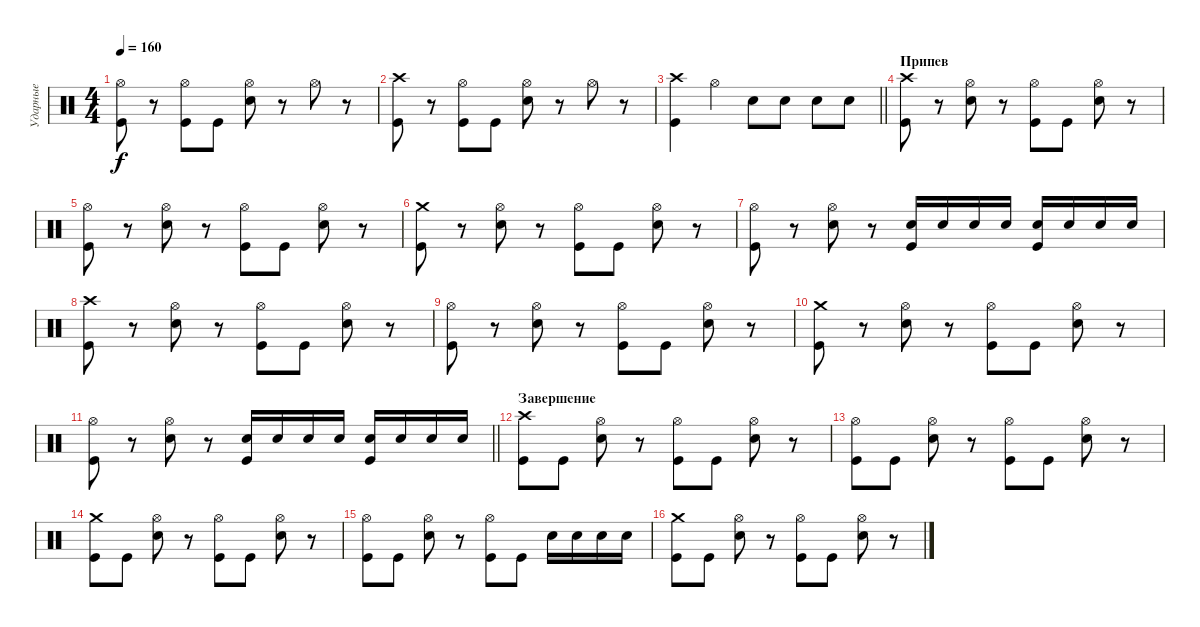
\track ("Ударные" "Ударные") {instrument percussion}
\staff {score}
\articulation defaults
\ts (4 4)
\tempo 160
\clef neutral
\ks c
("Kick (hit)" "Hi-Hat (open)").8{dy f} r.8 ("Kick (hit)" "Hi-Hat (open)").8 "Kick (hit)".8 ("Snare (hit) 2" "Hi-Hat (open)").8 r.8 "Hi-Hat (open)".8 r.8 |
("Kick (hit)" "Crash high (hit)").8 r.8 ("Kick (hit)" "Hi-Hat (open)").8 "Kick (hit)".8 ("Snare (hit) 2" "Hi-Hat (open)").8 r.8 "Hi-Hat (open)".8 r.8 |
\barLineRight lightlight
("Crash high (hit)" "Kick (hit)").4 "Hi-Hat (open)".4 "Snare (hit) 2".8 "Snare (hit) 2".8 "Snare (hit) 2".8 "Snare (hit) 2".8 |
\section ("" "Припев")
("Kick (hit)" "Crash high (hit)").8 r.8 ("Snare (hit) 2" "Hi-Hat (open)").8 r.8 ("Kick (hit)" "Hi-Hat (open)").8 "Kick (hit)".8 ("Snare (hit) 2" "Hi-Hat (open)").8 r.8 |
("Kick (hit)" "Hi-Hat (open)").8 r.8 ("Snare (hit) 2" "Hi-Hat (open)").8 r.8 ("Kick (hit)" "Hi-Hat (open)").8 "Kick (hit)".8 ("Snare (hit) 2" "Hi-Hat (open)").8 r.8 |
("Kick (hit)" "Crash medium (hit)").8 r.8 ("Snare (hit) 2" "Hi-Hat (open)").8 r.8 ("Kick (hit)" "Hi-Hat (open)").8 "Kick (hit)".8 ("Snare (hit) 2" "Hi-Hat (open)").8 r.8 |
("Kick (hit)" "Hi-Hat (open)").8 r.8 ("Snare (hit) 2" "Hi-Hat (open)").8 r.8 ("Snare (hit) 2" "Kick (hit)").16 "Snare (hit) 2".16 "Snare (hit) 2".16 "Snare (hit) 2".16 ("Snare (hit) 2" "Kick (hit)").16 "Snare (hit) 2".16 "Snare (hit) 2".16 "Snare (hit) 2".16 |
("Kick (hit)" "Crash high (hit)").8 r.8 ("Snare (hit) 2" "Hi-Hat (open)").8 r.8 ("Kick (hit)" "Hi-Hat (open)").8 "Kick (hit)".8 ("Snare (hit) 2" "Hi-Hat (open)").8 r.8 |
("Kick (hit)" "Hi-Hat (open)").8 r.8 ("Snare (hit) 2" "Hi-Hat (open)").8 r.8 ("Kick (hit)" "Hi-Hat (open)").8 "Kick (hit)".8 ("Snare (hit) 2" "Hi-Hat (open)").8 r.8 |
("Kick (hit)" "Crash medium (hit)").8 r.8 ("Snare (hit) 2" "Hi-Hat (open)").8 r.8 ("Kick (hit)" "Hi-Hat (open)").8 "Kick (hit)".8 ("Snare (hit) 2" "Hi-Hat (open)").8 r.8 |
\barLineRight lightlight
("Kick (hit)" "Hi-Hat (open)").8 r.8 ("Snare (hit) 2" "Hi-Hat (open)").8 r.8 ("Snare (hit) 2" "Kick (hit)").16 "Snare (hit) 2".16 "Snare (hit) 2".16 "Snare (hit) 2".16 ("Snare (hit) 2" "Kick (hit)").16 "Snare (hit) 2".16 "Snare (hit) 2".16 "Snare (hit) 2".16 |
\section ("" "Завершение")
("Kick (hit)" "Crash high (hit)").8 "Kick (hit)".8 ("Snare (hit) 2" "Hi-Hat (open)").8 r.8 ("Kick (hit)" "Hi-Hat (open)").8 "Kick (hit)".8 ("Snare (hit) 2" "Hi-Hat (open)").8 r.8 |
("Kick (hit)" "Hi-Hat (open)").8 "Kick (hit)".8 ("Snare (hit) 2" "Hi-Hat (open)").8 r.8 ("Kick (hit)" "Hi-Hat (open)").8 "Kick (hit)".8 ("Snare (hit) 2" "Hi-Hat (open)").8 r.8 |
("Kick (hit)" "Crash medium (hit)").8 "Kick (hit)".8 ("Snare (hit) 2" "Hi-Hat (open)").8 r.8 ("Kick (hit)" "Hi-Hat (open)").8 "Kick (hit)".8 ("Snare (hit) 2" "Hi-Hat (open)").8 r.8 |
("Kick (hit)" "Hi-Hat (open)").8 "Kick (hit)".8 ("Snare (hit) 2" "Hi-Hat (open)").8 r.8 ("Kick (hit)" "Hi-Hat (open)").8 "Kick (hit)".8 "Snare (hit) 2".16 "Snare (hit) 2".16 "Snare (hit) 2".16 "Snare (hit) 2".16 |
("Kick (hit)" "Crash medium (hit)").8 "Kick (hit)".8 ("Snare (hit) 2" "Hi-Hat (open)").8 r.8 ("Kick (hit)" "Hi-Hat (open)").8 "Kick (hit)".8 ("Snare (hit) 2" "Hi-Hat (open)").8 r.8
